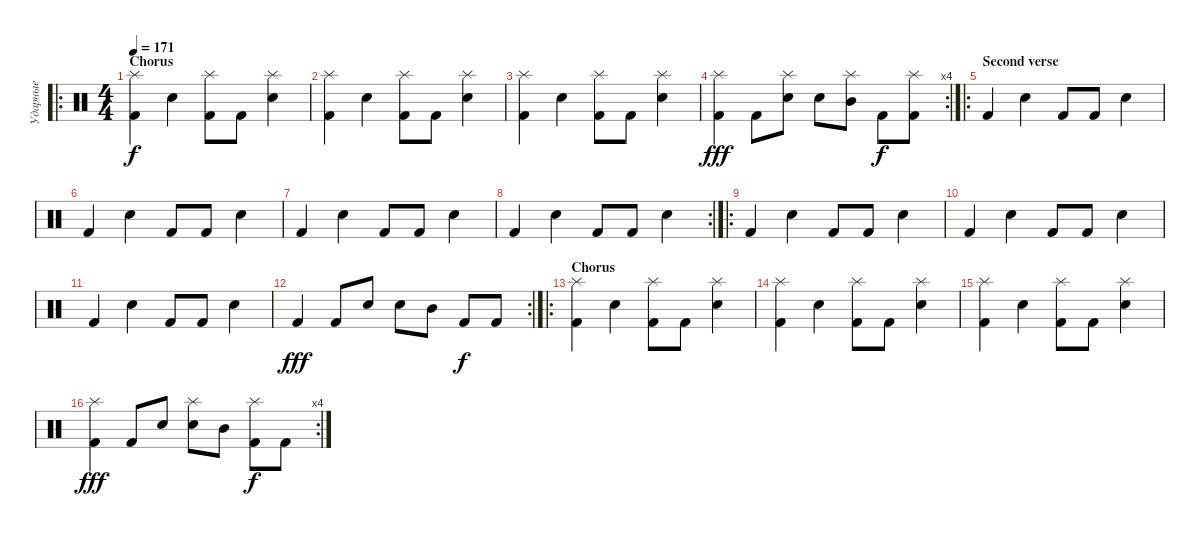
\track ("Ударные" "Ударные") {instrument percussion}
\staff {score}
\articulation defaults
\ro
\ts (4 4)
\section ("" "Chorus")
\tempo 171
\clef neutral
\ks c
("Kick (hit) 2" "Splash (hit)").4{dy f} "Snare (hit) 2".4 ("Kick (hit) 2" "Splash (hit)").8 "Kick (hit) 2".8 ("Snare (hit) 2" "Splash (hit)").4 |
("Kick (hit) 2" "Splash (hit)").4 "Snare (hit) 2".4 ("Kick (hit) 2" "Splash (hit)").8 "Kick (hit) 2".8 ("Snare (hit) 2" "Splash (hit)").4 |
("Kick (hit) 2" "Splash (hit)").4 "Snare (hit) 2".4 ("Kick (hit) 2" "Splash (hit)").8 "Kick (hit) 2".8 ("Snare (hit) 2" "Splash (hit)").4 |
\rc 4
("Kick (hit) 2" "Splash (hit)").4{dy fff} "Kick (hit) 2".8 ("Snare (hit) 2" "Splash (hit)").8 "Snare (hit) 2".8 ("Mid Tom (hit)" "Splash (hit)").8 "Kick (hit) 2".8{dy f} ("Kick (hit) 2" "Splash (hit)").8 |
\ro
\section ("" "Second verse")
"Kick (hit) 2".4 "Snare (hit) 2".4 "Kick (hit) 2".8 "Kick (hit) 2".8 "Snare (hit) 2".4 |
"Kick (hit) 2".4 "Snare (hit) 2".4 "Kick (hit) 2".8 "Kick (hit) 2".8 "Snare (hit) 2".4 |
"Kick (hit) 2".4 "Snare (hit) 2".4 "Kick (hit) 2".8 "Kick (hit) 2".8 "Snare (hit) 2".4 |
\rc 2 "Kick (hit) 2".4 "Snare (hit) 2".4 "Kick (hit) 2".8 "Kick (hit) 2".8 "Snare (hit) 2".4
|
\ro "Kick (hit) 2".4 "Snare (hit) 2".4 "Kick (hit) 2".8 "Kick (hit) 2".8 "Snare (hit) 2".4
|
"Kick (hit) 2".4 "Snare (hit) 2".4 "Kick (hit) 2".8 "Kick (hit) 2".8 "Snare (hit) 2".4 |
"Kick (hit) 2".4 "Snare (hit) 2".4 "Kick (hit) 2".8 "Kick (hit) 2".8 "Snare (hit) 2".4 |
\rc 2 "Kick (hit) 2".4{dy fff} "Kick (hit) 2".8 "Snare (hit) 2".8 "Snare (hit) 2".8 "Mid Tom (hit)".8 "Kick (hit) 2".8{dy f} "Kick (hit) 2".8
|
\ro
\section ("" "Chorus")
("Kick (hit) 2" "Splash (hit)").4 "Snare (hit) 2".4 ("Kick (hit) 2" "Splash (hit)").8 "Kick (hit) 2".8 ("Snare (hit) 2" "Splash (hit)").4 |
("Kick (hit) 2" "Splash (hit)").4 "Snare (hit) 2".4 ("Kick (hit) 2" "Splash (hit)").8 "Kick (hit) 2".8 ("Snare (hit) 2" "Splash (hit)").4 |
("Kick (hit) 2" "Splash (hit)").4 "Snare (hit) 2".4 ("Kick (hit) 2" "Splash (hit)").8 "Kick (hit) 2".8 ("Snare (hit) 2" "Splash (hit)").4 |
\rc 4
("Kick (hit) 2" "Splash (hit)").4{dy fff} "Kick (hit) 2".8 "Snare (hit) 2".8 ("Snare (hit) 2" "Splash (hit)").8 "Mid Tom (hit)".8 ("Kick (hit) 2" "Splash (hit)").8{dy f} "Kick (hit) 2".8
